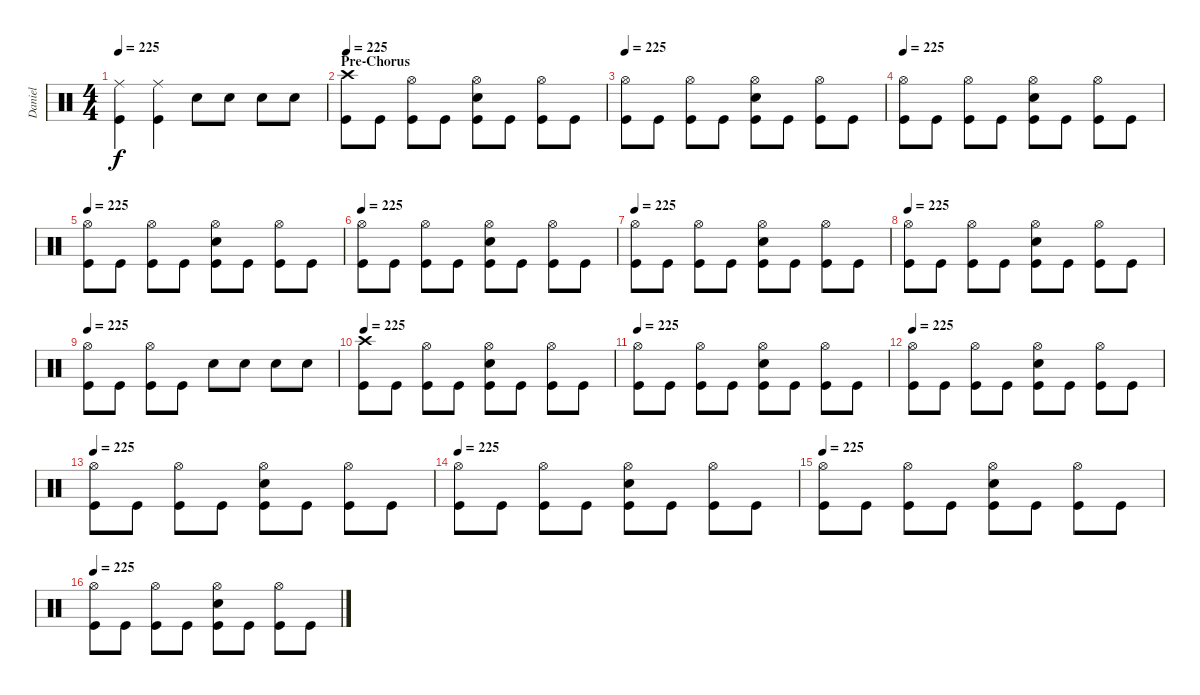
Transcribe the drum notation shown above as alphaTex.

\track ("Daniel" "Daniel") {instrument percussion}
\staff {score}
\articulation defaults
\ts (4 4)
\tempo 225
\clef neutral
\ks c
("Ride (middle)" "Kick (hit)").4{dy f} ("Ride (middle)" "Kick (hit)").4 "Snare (hit) 2".8 "Snare (hit) 2".8 "Snare (hit) 2".8 "Snare (hit) 2".8 |
\section ("" "Pre-Chorus")
\tempo 225
("Crash high (hit)" "Kick (hit)").8 "Kick (hit)".8 ("Hi-Hat (open)" "Kick (hit)").8 "Kick (hit)".8 ("Hi-Hat (open)" "Snare (hit) 2" "Kick (hit)").8 "Kick (hit)".8 ("Hi-Hat (open)" "Kick (hit)").8 "Kick (hit)".8 |
\tempo 225
("Hi-Hat (open)" "Kick (hit)").8 "Kick (hit)".8 ("Hi-Hat (open)" "Kick (hit)").8 "Kick (hit)".8 ("Hi-Hat (open)" "Snare (hit) 2" "Kick (hit)").8 "Kick (hit)".8 ("Hi-Hat (open)" "Kick (hit)").8 "Kick (hit)".8 |
\tempo 225
("Hi-Hat (open)" "Kick (hit)").8 "Kick (hit)".8 ("Hi-Hat (open)" "Kick (hit)").8 "Kick (hit)".8 ("Hi-Hat (open)" "Snare (hit) 2" "Kick (hit)").8 "Kick (hit)".8 ("Hi-Hat (open)" "Kick (hit)").8 "Kick (hit)".8 |
\tempo 225
("Hi-Hat (open)" "Kick (hit)").8 "Kick (hit)".8 ("Hi-Hat (open)" "Kick (hit)").8 "Kick (hit)".8 ("Hi-Hat (open)" "Snare (hit) 2" "Kick (hit)").8 "Kick (hit)".8 ("Hi-Hat (open)" "Kick (hit)").8 "Kick (hit)".8 |
\tempo 225
("Hi-Hat (open)" "Kick (hit)").8 "Kick (hit)".8 ("Hi-Hat (open)" "Kick (hit)").8 "Kick (hit)".8 ("Hi-Hat (open)" "Snare (hit) 2" "Kick (hit)").8 "Kick (hit)".8 ("Hi-Hat (open)" "Kick (hit)").8 "Kick (hit)".8 |
\tempo 225
("Hi-Hat (open)" "Kick (hit)").8 "Kick (hit)".8 ("Hi-Hat (open)" "Kick (hit)").8 "Kick (hit)".8 ("Hi-Hat (open)" "Snare (hit) 2" "Kick (hit)").8 "Kick (hit)".8 ("Hi-Hat (open)" "Kick (hit)").8 "Kick (hit)".8 |
\tempo 225
("Hi-Hat (open)" "Kick (hit)").8 "Kick (hit)".8 ("Hi-Hat (open)" "Kick (hit)").8 "Kick (hit)".8 ("Hi-Hat (open)" "Snare (hit) 2" "Kick (hit)").8 "Kick (hit)".8 ("Hi-Hat (open)" "Kick (hit)").8 "Kick (hit)".8 |
\tempo 225
("Hi-Hat (open)" "Kick (hit)").8 "Kick (hit)".8 ("Hi-Hat (open)" "Kick (hit)").8 "Kick (hit)".8 "Snare (hit) 2".8 "Snare (hit) 2".8 "Snare (hit) 2".8 "Snare (hit) 2".8 |
\tempo 225
("Crash high (hit)" "Kick (hit)").8 "Kick (hit)".8 ("Hi-Hat (open)" "Kick (hit)").8 "Kick (hit)".8 ("Hi-Hat (open)" "Snare (hit) 2" "Kick (hit)").8 "Kick (hit)".8 ("Hi-Hat (open)" "Kick (hit)").8 "Kick (hit)".8 |
\tempo 225
("Hi-Hat (open)" "Kick (hit)").8 "Kick (hit)".8 ("Hi-Hat (open)" "Kick (hit)").8 "Kick (hit)".8 ("Hi-Hat (open)" "Snare (hit) 2" "Kick (hit)").8 "Kick (hit)".8 ("Hi-Hat (open)" "Kick (hit)").8 "Kick (hit)".8 |
\tempo 225
("Hi-Hat (open)" "Kick (hit)").8 "Kick (hit)".8 ("Hi-Hat (open)" "Kick (hit)").8 "Kick (hit)".8 ("Hi-Hat (open)" "Snare (hit) 2" "Kick (hit)").8 "Kick (hit)".8 ("Hi-Hat (open)" "Kick (hit)").8 "Kick (hit)".8 |
\tempo 225
("Hi-Hat (open)" "Kick (hit)").8 "Kick (hit)".8 ("Hi-Hat (open)" "Kick (hit)").8 "Kick (hit)".8 ("Hi-Hat (open)" "Snare (hit) 2" "Kick (hit)").8 "Kick (hit)".8 ("Hi-Hat (open)" "Kick (hit)").8 "Kick (hit)".8 |
\tempo 225
("Hi-Hat (open)" "Kick (hit)").8 "Kick (hit)".8 ("Hi-Hat (open)" "Kick (hit)").8 "Kick (hit)".8 ("Hi-Hat (open)" "Snare (hit) 2" "Kick (hit)").8 "Kick (hit)".8 ("Hi-Hat (open)" "Kick (hit)").8 "Kick (hit)".8 |
\tempo 225
("Hi-Hat (open)" "Kick (hit)").8 "Kick (hit)".8 ("Hi-Hat (open)" "Kick (hit)").8 "Kick (hit)".8 ("Hi-Hat (open)" "Snare (hit) 2" "Kick (hit)").8 "Kick (hit)".8 ("Hi-Hat (open)" "Kick (hit)").8 "Kick (hit)".8 |
\tempo 225
("Hi-Hat (open)" "Kick (hit)").8 "Kick (hit)".8 ("Hi-Hat (open)" "Kick (hit)").8 "Kick (hit)".8 ("Hi-Hat (open)" "Snare (hit) 2" "Kick (hit)").8 "Kick (hit)".8 ("Hi-Hat (open)" "Kick (hit)").8 "Kick (hit)".8
